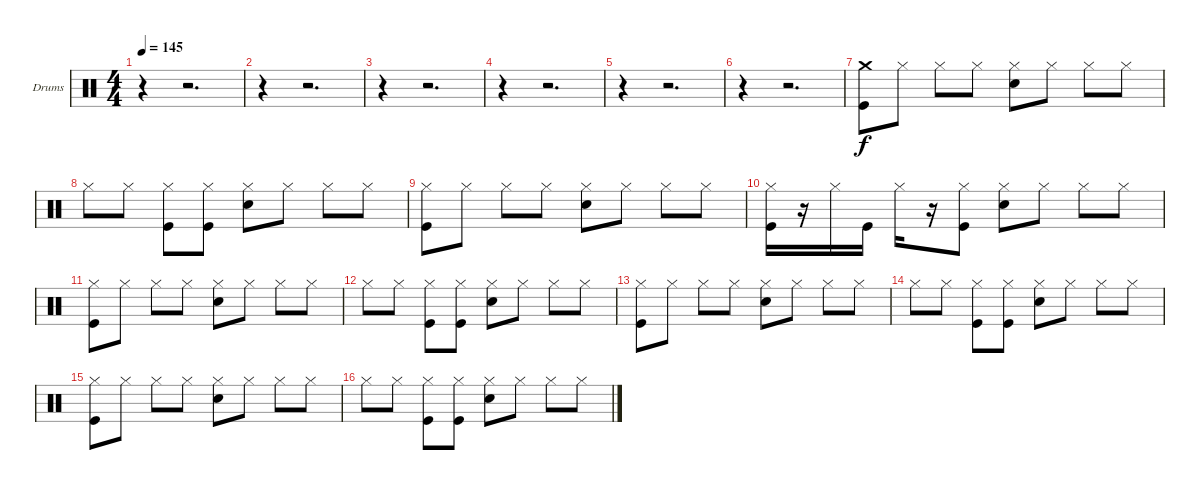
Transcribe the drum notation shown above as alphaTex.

\bracketExtendMode groupsimilarinstruments
\firstSystemTrackNameOrientation horizontal
\otherSystemsTrackNameOrientation horizontal
\track ("Drumkit" "Drums") {instrument percussion}
\staff {score}
\articulation defaults
\ts (4 4)
\tempo 145
\clef neutral
\ks c
r.4{dy f} r.2{d} |
r.4 r.2{d} |
r.4 r.2{d} |
r.4 r.2{d} |
r.4 r.2{d} |
r.4 r.2{d} |
("Crash medium (hit)" "Kick (hit)").8 "Hi-Hat (closed)".8 "Hi-Hat (closed)".8 "Hi-Hat (closed)".8 ("Hi-Hat (closed)" "Snare (hit) 2").8 "Hi-Hat (closed)".8 "Hi-Hat (closed)".8 "Hi-Hat (closed)".8 |
"Hi-Hat (closed)".8 "Hi-Hat (closed)".8 ("Hi-Hat (closed)" "Kick (hit)").8 ("Hi-Hat (closed)" "Kick (hit)").8 ("Hi-Hat (closed)" "Snare (hit) 2").8 "Hi-Hat (closed)".8 "Hi-Hat (closed)".8 "Hi-Hat (closed)".8 |
("Hi-Hat (closed)" "Kick (hit)").8 "Hi-Hat (closed)".8 "Hi-Hat (closed)".8 "Hi-Hat (closed)".8 ("Hi-Hat (closed)" "Snare (hit) 2").8 "Hi-Hat (closed)".8 "Hi-Hat (closed)".8 "Hi-Hat (closed)".8 |
("Hi-Hat (closed)" "Kick (hit)").16 r.16 "Hi-Hat (closed)".16 "Kick (hit)".16 "Hi-Hat (closed)".16 r.16 ("Hi-Hat (closed)" "Kick (hit)").8 ("Hi-Hat (closed)" "Snare (hit) 2").8 "Hi-Hat (closed)".8 "Hi-Hat (closed)".8 "Hi-Hat (closed)".8 |
("Hi-Hat (closed)" "Kick (hit)").8 "Hi-Hat (closed)".8 "Hi-Hat (closed)".8 "Hi-Hat (closed)".8 ("Hi-Hat (closed)" "Snare (hit) 2").8 "Hi-Hat (closed)".8 "Hi-Hat (closed)".8 "Hi-Hat (closed)".8 |
"Hi-Hat (closed)".8 "Hi-Hat (closed)".8 ("Hi-Hat (closed)" "Kick (hit)").8 ("Hi-Hat (closed)" "Kick (hit)").8 ("Hi-Hat (closed)" "Snare (hit) 2").8 "Hi-Hat (closed)".8 "Hi-Hat (closed)".8 "Hi-Hat (closed)".8 |
("Hi-Hat (closed)" "Kick (hit)").8 "Hi-Hat (closed)".8 "Hi-Hat (closed)".8 "Hi-Hat (closed)".8 ("Hi-Hat (closed)" "Snare (hit) 2").8 "Hi-Hat (closed)".8 "Hi-Hat (closed)".8 "Hi-Hat (closed)".8 |
"Hi-Hat (closed)".8 "Hi-Hat (closed)".8 ("Hi-Hat (closed)" "Kick (hit)").8 ("Hi-Hat (closed)" "Kick (hit)").8 ("Hi-Hat (closed)" "Snare (hit) 2").8 "Hi-Hat (closed)".8 "Hi-Hat (closed)".8 "Hi-Hat (closed)".8 |
("Hi-Hat (closed)" "Kick (hit)").8 "Hi-Hat (closed)".8 "Hi-Hat (closed)".8 "Hi-Hat (closed)".8 ("Hi-Hat (closed)" "Snare (hit) 2").8 "Hi-Hat (closed)".8 "Hi-Hat (closed)".8 "Hi-Hat (closed)".8 |
"Hi-Hat (closed)".8 "Hi-Hat (closed)".8 ("Hi-Hat (closed)" "Kick (hit)").8 ("Hi-Hat (closed)" "Kick (hit)").8 ("Hi-Hat (closed)" "Snare (hit) 2").8 "Hi-Hat (closed)".8 "Hi-Hat (closed)".8 "Hi-Hat (closed)".8
